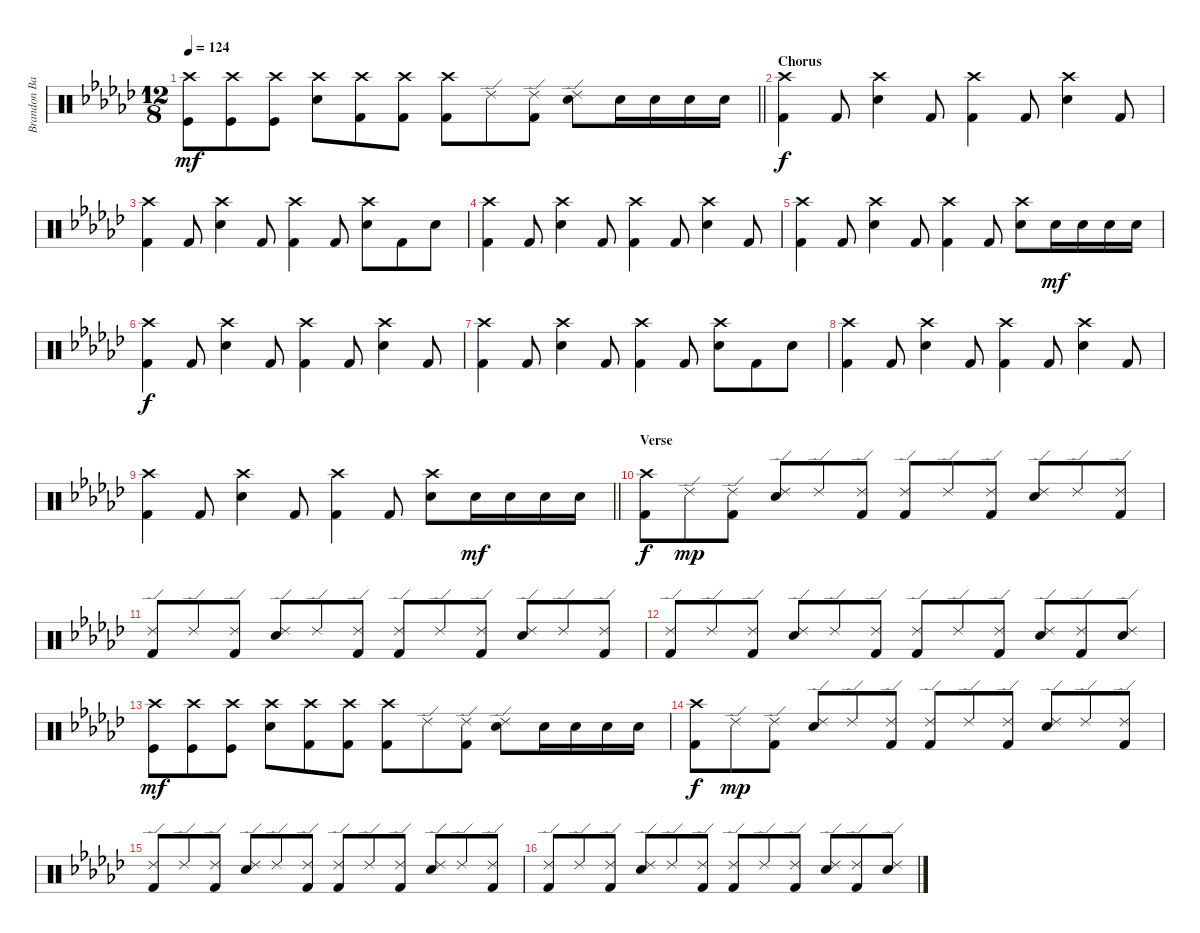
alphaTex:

\track ("Brandon Barnes - Drums" "Brandon Ba") {instrument percussion}
\staff {score}
\articulation defaults
\ts (12 8)
\tempo 124
\clef neutral
\barLineRight lightlight
\ks gb
("Crash high (hit)" "Kick (hit)").8{dy mf} ("Crash high (hit)" "Kick (hit)").8 ("Crash high (hit)" "Kick (hit)").8 ("Crash high (hit)" "Snare (hit) 2").8 ("Crash high (hit)" "Kick (hit) 2").8 ("Crash high (hit)" "Kick (hit) 2").8 ("Crash high (hit)" "Kick (hit) 2").8 "Ride (edge) 2".8 ("Ride (edge) 2" "Kick (hit) 2").8 ("Ride (edge) 2" "Snare (hit) 2").8 "Snare (hit) 2".16 "Snare (hit) 2".16 "Snare (hit) 2".16 "Snare (hit) 2".16 |
\section ("" "Chorus")
("Crash high (hit)" "Kick (hit) 2").4{dy f} "Kick (hit) 2".8 ("Snare (hit) 2" "Crash high (hit)").4 "Kick (hit) 2".8 ("Crash high (hit)" "Kick (hit) 2").4 "Kick (hit) 2".8 ("Snare (hit) 2" "Crash high (hit)").4 "Kick (hit) 2".8 |
("Crash high (hit)" "Kick (hit) 2").4 "Kick (hit) 2".8 ("Snare (hit) 2" "Crash high (hit)").4 "Kick (hit) 2".8 ("Crash high (hit)" "Kick (hit) 2").4 "Kick (hit) 2".8 ("Snare (hit) 2" "Crash high (hit)").8 "Kick (hit) 2".8 "Snare (hit) 2".8 |
("Crash high (hit)" "Kick (hit) 2").4 "Kick (hit) 2".8 ("Snare (hit) 2" "Crash high (hit)").4 "Kick (hit) 2".8 ("Crash high (hit)" "Kick (hit) 2").4 "Kick (hit) 2".8 ("Snare (hit) 2" "Crash high (hit)").4 "Kick (hit) 2".8 |
("Crash high (hit)" "Kick (hit) 2").4 "Kick (hit) 2".8 ("Snare (hit) 2" "Crash high (hit)").4 "Kick (hit) 2".8 ("Crash high (hit)" "Kick (hit) 2").4 "Kick (hit) 2".8 ("Snare (hit) 2" "Crash high (hit)").8 "Snare (hit) 2".16{dy mf} "Snare (hit) 2".16 "Snare (hit) 2".16 "Snare (hit) 2".16 |
("Crash high (hit)" "Kick (hit) 2").4{dy f} "Kick (hit) 2".8 ("Snare (hit) 2" "Crash high (hit)").4 "Kick (hit) 2".8 ("Crash high (hit)" "Kick (hit) 2").4 "Kick (hit) 2".8 ("Snare (hit) 2" "Crash high (hit)").4 "Kick (hit) 2".8 |
("Crash high (hit)" "Kick (hit) 2").4 "Kick (hit) 2".8 ("Snare (hit) 2" "Crash high (hit)").4 "Kick (hit) 2".8 ("Crash high (hit)" "Kick (hit) 2").4 "Kick (hit) 2".8 ("Snare (hit) 2" "Crash high (hit)").8 "Kick (hit) 2".8 "Snare (hit) 2".8 |
("Crash high (hit)" "Kick (hit) 2").4 "Kick (hit) 2".8 ("Snare (hit) 2" "Crash high (hit)").4 "Kick (hit) 2".8 ("Crash high (hit)" "Kick (hit) 2").4 "Kick (hit) 2".8 ("Snare (hit) 2" "Crash high (hit)").4 "Kick (hit) 2".8 |
\barLineRight lightlight
("Crash high (hit)" "Kick (hit) 2").4 "Kick (hit) 2".8 ("Snare (hit) 2" "Crash high (hit)").4 "Kick (hit) 2".8 ("Crash high (hit)" "Kick (hit) 2").4 "Kick (hit) 2".8 ("Snare (hit) 2" "Crash high (hit)").8 "Snare (hit) 2".16{dy mf} "Snare (hit) 2".16 "Snare (hit) 2".16 "Snare (hit) 2".16 |
\section ("" "Verse")
("Crash high (hit)" "Kick (hit) 2").8{dy f} "Ride (edge) 2".8{dy mp} ("Ride (edge) 2" "Kick (hit) 2").8 ("Ride (edge) 2" "Snare (hit) 2").8 "Ride (edge) 2".8 ("Ride (edge) 2" "Kick (hit) 2").8 ("Ride (edge) 2" "Kick (hit) 2").8 "Ride (edge) 2".8 ("Ride (edge) 2" "Kick (hit) 2").8 ("Ride (edge) 2" "Snare (hit) 2").8 "Ride (edge) 2".8 ("Ride (edge) 2" "Kick (hit) 2").8 |
("Ride (edge) 2" "Kick (hit) 2").8 "Ride (edge) 2".8 ("Ride (edge) 2" "Kick (hit) 2").8 ("Ride (edge) 2" "Snare (hit) 2").8 "Ride (edge) 2".8 ("Ride (edge) 2" "Kick (hit) 2").8 ("Ride (edge) 2" "Kick (hit) 2").8 "Ride (edge) 2".8 ("Ride (edge) 2" "Kick (hit) 2").8 ("Ride (edge) 2" "Snare (hit) 2").8 "Ride (edge) 2".8 ("Ride (edge) 2" "Kick (hit) 2").8 |
("Ride (edge) 2" "Kick (hit) 2").8 "Ride (edge) 2".8 ("Ride (edge) 2" "Kick (hit) 2").8 ("Ride (edge) 2" "Snare (hit) 2").8 "Ride (edge) 2".8 ("Ride (edge) 2" "Kick (hit) 2").8 ("Ride (edge) 2" "Kick (hit) 2").8 "Ride (edge) 2".8 ("Ride (edge) 2" "Kick (hit) 2").8 ("Ride (edge) 2" "Snare (hit) 2").8 ("Ride (edge) 2" "Kick (hit) 2").8 ("Ride (edge) 2" "Snare (hit) 2").8 |
("Crash high (hit)" "Kick (hit)").8{dy mf} ("Crash high (hit)" "Kick (hit)").8 ("Crash high (hit)" "Kick (hit)").8 ("Crash high (hit)" "Snare (hit) 2").8 ("Crash high (hit)" "Kick (hit) 2").8 ("Crash high (hit)" "Kick (hit) 2").8 ("Crash high (hit)" "Kick (hit) 2").8 "Ride (edge) 2".8 ("Ride (edge) 2" "Kick (hit) 2").8 ("Ride (edge) 2" "Snare (hit) 2").8 "Snare (hit) 2".16 "Snare (hit) 2".16 "Snare (hit) 2".16 "Snare (hit) 2".16 |
("Crash high (hit)" "Kick (hit) 2").8{dy f} "Ride (edge) 2".8{dy mp} ("Ride (edge) 2" "Kick (hit) 2").8 ("Ride (edge) 2" "Snare (hit) 2").8 "Ride (edge) 2".8 ("Ride (edge) 2" "Kick (hit) 2").8 ("Ride (edge) 2" "Kick (hit) 2").8 "Ride (edge) 2".8 ("Ride (edge) 2" "Kick (hit) 2").8 ("Ride (edge) 2" "Snare (hit) 2").8 "Ride (edge) 2".8 ("Ride (edge) 2" "Kick (hit) 2").8 |
("Ride (edge) 2" "Kick (hit) 2").8 "Ride (edge) 2".8 ("Ride (edge) 2" "Kick (hit) 2").8 ("Ride (edge) 2" "Snare (hit) 2").8 "Ride (edge) 2".8 ("Ride (edge) 2" "Kick (hit) 2").8 ("Ride (edge) 2" "Kick (hit) 2").8 "Ride (edge) 2".8 ("Ride (edge) 2" "Kick (hit) 2").8 ("Ride (edge) 2" "Snare (hit) 2").8 "Ride (edge) 2".8 ("Ride (edge) 2" "Kick (hit) 2").8 |
("Ride (edge) 2" "Kick (hit) 2").8 "Ride (edge) 2".8 ("Ride (edge) 2" "Kick (hit) 2").8 ("Ride (edge) 2" "Snare (hit) 2").8 "Ride (edge) 2".8 ("Ride (edge) 2" "Kick (hit) 2").8 ("Ride (edge) 2" "Kick (hit) 2").8 "Ride (edge) 2".8 ("Ride (edge) 2" "Kick (hit) 2").8 ("Ride (edge) 2" "Snare (hit) 2").8 ("Ride (edge) 2" "Kick (hit) 2").8 ("Ride (edge) 2" "Snare (hit) 2").8
